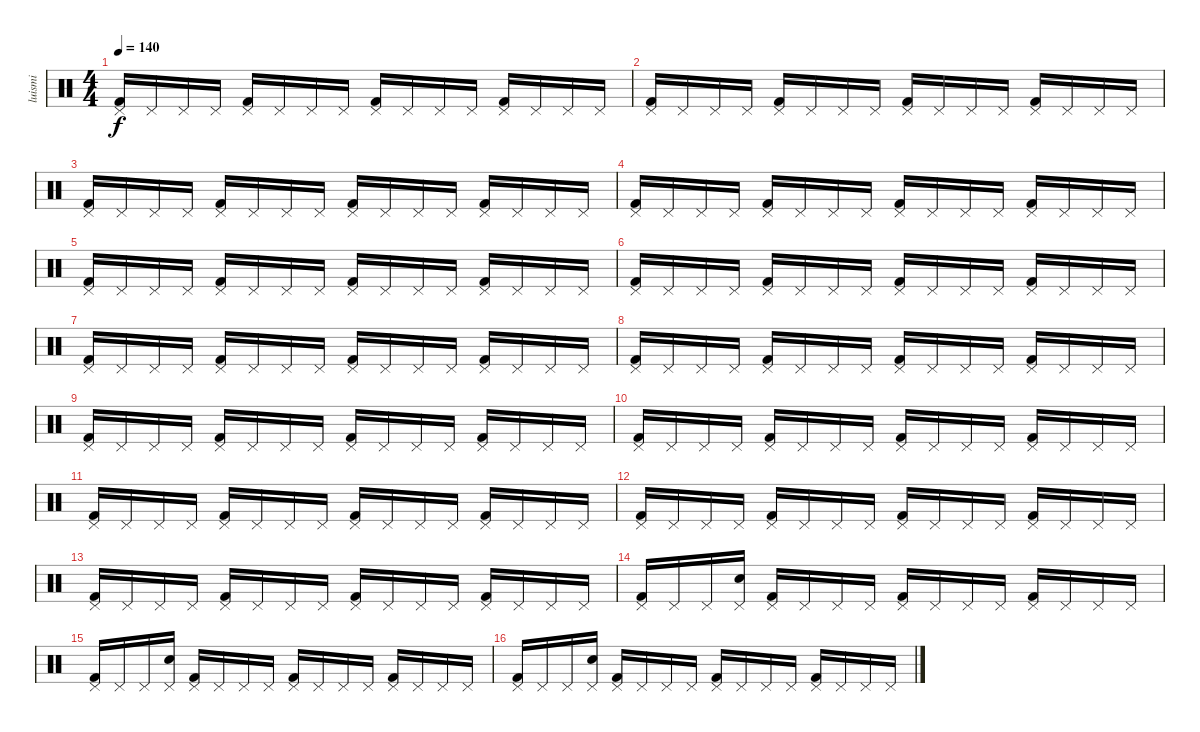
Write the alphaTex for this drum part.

\track ("luismi" "luismi") {instrument percussion}
\staff {score}
\articulation defaults
\ts (4 4)
\tempo 140
\clef neutral
\ks c
("Kick (hit) 2" "Pedal Hi-Hat (hit)").16{dy f} "Pedal Hi-Hat (hit)".16 "Pedal Hi-Hat (hit)".16 "Pedal Hi-Hat (hit)".16 ("Kick (hit) 2" "Pedal Hi-Hat (hit)").16 "Pedal Hi-Hat (hit)".16 "Pedal Hi-Hat (hit)".16 "Pedal Hi-Hat (hit)".16 ("Kick (hit) 2" "Pedal Hi-Hat (hit)").16 "Pedal Hi-Hat (hit)".16 "Pedal Hi-Hat (hit)".16 "Pedal Hi-Hat (hit)".16 ("Kick (hit) 2" "Pedal Hi-Hat (hit)").16 "Pedal Hi-Hat (hit)".16 "Pedal Hi-Hat (hit)".16 "Pedal Hi-Hat (hit)".16 |
("Kick (hit) 2" "Pedal Hi-Hat (hit)").16 "Pedal Hi-Hat (hit)".16 "Pedal Hi-Hat (hit)".16 "Pedal Hi-Hat (hit)".16 ("Kick (hit) 2" "Pedal Hi-Hat (hit)").16 "Pedal Hi-Hat (hit)".16 "Pedal Hi-Hat (hit)".16 "Pedal Hi-Hat (hit)".16 ("Kick (hit) 2" "Pedal Hi-Hat (hit)").16 "Pedal Hi-Hat (hit)".16 "Pedal Hi-Hat (hit)".16 "Pedal Hi-Hat (hit)".16 ("Kick (hit) 2" "Pedal Hi-Hat (hit)").16 "Pedal Hi-Hat (hit)".16 "Pedal Hi-Hat (hit)".16 "Pedal Hi-Hat (hit)".16 |
("Kick (hit) 2" "Pedal Hi-Hat (hit)").16 "Pedal Hi-Hat (hit)".16 "Pedal Hi-Hat (hit)".16 "Pedal Hi-Hat (hit)".16 ("Kick (hit) 2" "Pedal Hi-Hat (hit)").16 "Pedal Hi-Hat (hit)".16 "Pedal Hi-Hat (hit)".16 "Pedal Hi-Hat (hit)".16 ("Kick (hit) 2" "Pedal Hi-Hat (hit)").16 "Pedal Hi-Hat (hit)".16 "Pedal Hi-Hat (hit)".16 "Pedal Hi-Hat (hit)".16 ("Kick (hit) 2" "Pedal Hi-Hat (hit)").16 "Pedal Hi-Hat (hit)".16 "Pedal Hi-Hat (hit)".16 "Pedal Hi-Hat (hit)".16 |
("Kick (hit) 2" "Pedal Hi-Hat (hit)").16 "Pedal Hi-Hat (hit)".16 "Pedal Hi-Hat (hit)".16 "Pedal Hi-Hat (hit)".16 ("Kick (hit) 2" "Pedal Hi-Hat (hit)").16 "Pedal Hi-Hat (hit)".16 "Pedal Hi-Hat (hit)".16 "Pedal Hi-Hat (hit)".16 ("Kick (hit) 2" "Pedal Hi-Hat (hit)").16 "Pedal Hi-Hat (hit)".16 "Pedal Hi-Hat (hit)".16 "Pedal Hi-Hat (hit)".16 ("Kick (hit) 2" "Pedal Hi-Hat (hit)").16 "Pedal Hi-Hat (hit)".16 "Pedal Hi-Hat (hit)".16 "Pedal Hi-Hat (hit)".16 |
("Kick (hit) 2" "Pedal Hi-Hat (hit)").16 "Pedal Hi-Hat (hit)".16 "Pedal Hi-Hat (hit)".16 "Pedal Hi-Hat (hit)".16 ("Kick (hit) 2" "Pedal Hi-Hat (hit)").16 "Pedal Hi-Hat (hit)".16 "Pedal Hi-Hat (hit)".16 "Pedal Hi-Hat (hit)".16 ("Kick (hit) 2" "Pedal Hi-Hat (hit)").16 "Pedal Hi-Hat (hit)".16 "Pedal Hi-Hat (hit)".16 "Pedal Hi-Hat (hit)".16 ("Kick (hit) 2" "Pedal Hi-Hat (hit)").16 "Pedal Hi-Hat (hit)".16 "Pedal Hi-Hat (hit)".16 "Pedal Hi-Hat (hit)".16 |
("Kick (hit) 2" "Pedal Hi-Hat (hit)").16 "Pedal Hi-Hat (hit)".16 "Pedal Hi-Hat (hit)".16 "Pedal Hi-Hat (hit)".16 ("Kick (hit) 2" "Pedal Hi-Hat (hit)").16 "Pedal Hi-Hat (hit)".16 "Pedal Hi-Hat (hit)".16 "Pedal Hi-Hat (hit)".16 ("Kick (hit) 2" "Pedal Hi-Hat (hit)").16 "Pedal Hi-Hat (hit)".16 "Pedal Hi-Hat (hit)".16 "Pedal Hi-Hat (hit)".16 ("Kick (hit) 2" "Pedal Hi-Hat (hit)").16 "Pedal Hi-Hat (hit)".16 "Pedal Hi-Hat (hit)".16 "Pedal Hi-Hat (hit)".16 |
("Kick (hit) 2" "Pedal Hi-Hat (hit)").16 "Pedal Hi-Hat (hit)".16 "Pedal Hi-Hat (hit)".16 "Pedal Hi-Hat (hit)".16 ("Kick (hit) 2" "Pedal Hi-Hat (hit)").16 "Pedal Hi-Hat (hit)".16 "Pedal Hi-Hat (hit)".16 "Pedal Hi-Hat (hit)".16 ("Kick (hit) 2" "Pedal Hi-Hat (hit)").16 "Pedal Hi-Hat (hit)".16 "Pedal Hi-Hat (hit)".16 "Pedal Hi-Hat (hit)".16 ("Kick (hit) 2" "Pedal Hi-Hat (hit)").16 "Pedal Hi-Hat (hit)".16 "Pedal Hi-Hat (hit)".16 "Pedal Hi-Hat (hit)".16 |
("Kick (hit) 2" "Pedal Hi-Hat (hit)").16 "Pedal Hi-Hat (hit)".16 "Pedal Hi-Hat (hit)".16 "Pedal Hi-Hat (hit)".16 ("Kick (hit) 2" "Pedal Hi-Hat (hit)").16 "Pedal Hi-Hat (hit)".16 "Pedal Hi-Hat (hit)".16 "Pedal Hi-Hat (hit)".16 ("Kick (hit) 2" "Pedal Hi-Hat (hit)").16 "Pedal Hi-Hat (hit)".16 "Pedal Hi-Hat (hit)".16 "Pedal Hi-Hat (hit)".16 ("Kick (hit) 2" "Pedal Hi-Hat (hit)").16 "Pedal Hi-Hat (hit)".16 "Pedal Hi-Hat (hit)".16 "Pedal Hi-Hat (hit)".16 |
("Kick (hit) 2" "Pedal Hi-Hat (hit)").16 "Pedal Hi-Hat (hit)".16 "Pedal Hi-Hat (hit)".16 "Pedal Hi-Hat (hit)".16 ("Kick (hit) 2" "Pedal Hi-Hat (hit)").16 "Pedal Hi-Hat (hit)".16 "Pedal Hi-Hat (hit)".16 "Pedal Hi-Hat (hit)".16 ("Kick (hit) 2" "Pedal Hi-Hat (hit)").16 "Pedal Hi-Hat (hit)".16 "Pedal Hi-Hat (hit)".16 "Pedal Hi-Hat (hit)".16 ("Kick (hit) 2" "Pedal Hi-Hat (hit)").16 "Pedal Hi-Hat (hit)".16 "Pedal Hi-Hat (hit)".16 "Pedal Hi-Hat (hit)".16 |
("Kick (hit) 2" "Pedal Hi-Hat (hit)").16 "Pedal Hi-Hat (hit)".16 "Pedal Hi-Hat (hit)".16 "Pedal Hi-Hat (hit)".16 ("Kick (hit) 2" "Pedal Hi-Hat (hit)").16 "Pedal Hi-Hat (hit)".16 "Pedal Hi-Hat (hit)".16 "Pedal Hi-Hat (hit)".16 ("Kick (hit) 2" "Pedal Hi-Hat (hit)").16 "Pedal Hi-Hat (hit)".16 "Pedal Hi-Hat (hit)".16 "Pedal Hi-Hat (hit)".16 ("Kick (hit) 2" "Pedal Hi-Hat (hit)").16 "Pedal Hi-Hat (hit)".16 "Pedal Hi-Hat (hit)".16 "Pedal Hi-Hat (hit)".16 |
("Kick (hit) 2" "Pedal Hi-Hat (hit)").16 "Pedal Hi-Hat (hit)".16 "Pedal Hi-Hat (hit)".16 "Pedal Hi-Hat (hit)".16 ("Kick (hit) 2" "Pedal Hi-Hat (hit)").16 "Pedal Hi-Hat (hit)".16 "Pedal Hi-Hat (hit)".16 "Pedal Hi-Hat (hit)".16 ("Kick (hit) 2" "Pedal Hi-Hat (hit)").16 "Pedal Hi-Hat (hit)".16 "Pedal Hi-Hat (hit)".16 "Pedal Hi-Hat (hit)".16 ("Kick (hit) 2" "Pedal Hi-Hat (hit)").16 "Pedal Hi-Hat (hit)".16 "Pedal Hi-Hat (hit)".16 "Pedal Hi-Hat (hit)".16 |
("Kick (hit) 2" "Pedal Hi-Hat (hit)").16 "Pedal Hi-Hat (hit)".16 "Pedal Hi-Hat (hit)".16 "Pedal Hi-Hat (hit)".16 ("Kick (hit) 2" "Pedal Hi-Hat (hit)").16 "Pedal Hi-Hat (hit)".16 "Pedal Hi-Hat (hit)".16 "Pedal Hi-Hat (hit)".16 ("Kick (hit) 2" "Pedal Hi-Hat (hit)").16 "Pedal Hi-Hat (hit)".16 "Pedal Hi-Hat (hit)".16 "Pedal Hi-Hat (hit)".16 ("Kick (hit) 2" "Pedal Hi-Hat (hit)").16 "Pedal Hi-Hat (hit)".16 "Pedal Hi-Hat (hit)".16 "Pedal Hi-Hat (hit)".16 |
("Kick (hit) 2" "Pedal Hi-Hat (hit)").16 "Pedal Hi-Hat (hit)".16 "Pedal Hi-Hat (hit)".16 "Pedal Hi-Hat (hit)".16 ("Kick (hit) 2" "Pedal Hi-Hat (hit)").16 "Pedal Hi-Hat (hit)".16 "Pedal Hi-Hat (hit)".16 "Pedal Hi-Hat (hit)".16 ("Kick (hit) 2" "Pedal Hi-Hat (hit)").16 "Pedal Hi-Hat (hit)".16 "Pedal Hi-Hat (hit)".16 "Pedal Hi-Hat (hit)".16 ("Kick (hit) 2" "Pedal Hi-Hat (hit)").16 "Pedal Hi-Hat (hit)".16 "Pedal Hi-Hat (hit)".16 "Pedal Hi-Hat (hit)".16 |
("Kick (hit) 2" "Pedal Hi-Hat (hit)").16 "Pedal Hi-Hat (hit)".16 "Pedal Hi-Hat (hit)".16 ("Electric Snare (hit)" "Pedal Hi-Hat (hit)").16 ("Kick (hit) 2" "Pedal Hi-Hat (hit)").16 "Pedal Hi-Hat (hit)".16 "Pedal Hi-Hat (hit)".16 "Pedal Hi-Hat (hit)".16 ("Kick (hit) 2" "Pedal Hi-Hat (hit)").16 "Pedal Hi-Hat (hit)".16 "Pedal Hi-Hat (hit)".16 "Pedal Hi-Hat (hit)".16 ("Kick (hit) 2" "Pedal Hi-Hat (hit)").16 "Pedal Hi-Hat (hit)".16 "Pedal Hi-Hat (hit)".16 "Pedal Hi-Hat (hit)".16 |
("Kick (hit) 2" "Pedal Hi-Hat (hit)").16 "Pedal Hi-Hat (hit)".16 "Pedal Hi-Hat (hit)".16 ("Electric Snare (hit)" "Pedal Hi-Hat (hit)").16 ("Kick (hit) 2" "Pedal Hi-Hat (hit)").16 "Pedal Hi-Hat (hit)".16 "Pedal Hi-Hat (hit)".16 "Pedal Hi-Hat (hit)".16 ("Kick (hit) 2" "Pedal Hi-Hat (hit)").16 "Pedal Hi-Hat (hit)".16 "Pedal Hi-Hat (hit)".16 "Pedal Hi-Hat (hit)".16 ("Kick (hit) 2" "Pedal Hi-Hat (hit)").16 "Pedal Hi-Hat (hit)".16 "Pedal Hi-Hat (hit)".16 "Pedal Hi-Hat (hit)".16 |
("Kick (hit) 2" "Pedal Hi-Hat (hit)").16 "Pedal Hi-Hat (hit)".16 "Pedal Hi-Hat (hit)".16 ("Electric Snare (hit)" "Pedal Hi-Hat (hit)").16 ("Kick (hit) 2" "Pedal Hi-Hat (hit)").16 "Pedal Hi-Hat (hit)".16 "Pedal Hi-Hat (hit)".16 "Pedal Hi-Hat (hit)".16 ("Kick (hit) 2" "Pedal Hi-Hat (hit)").16 "Pedal Hi-Hat (hit)".16 "Pedal Hi-Hat (hit)".16 "Pedal Hi-Hat (hit)".16 ("Kick (hit) 2" "Pedal Hi-Hat (hit)").16 "Pedal Hi-Hat (hit)".16 "Pedal Hi-Hat (hit)".16 "Pedal Hi-Hat (hit)".16
